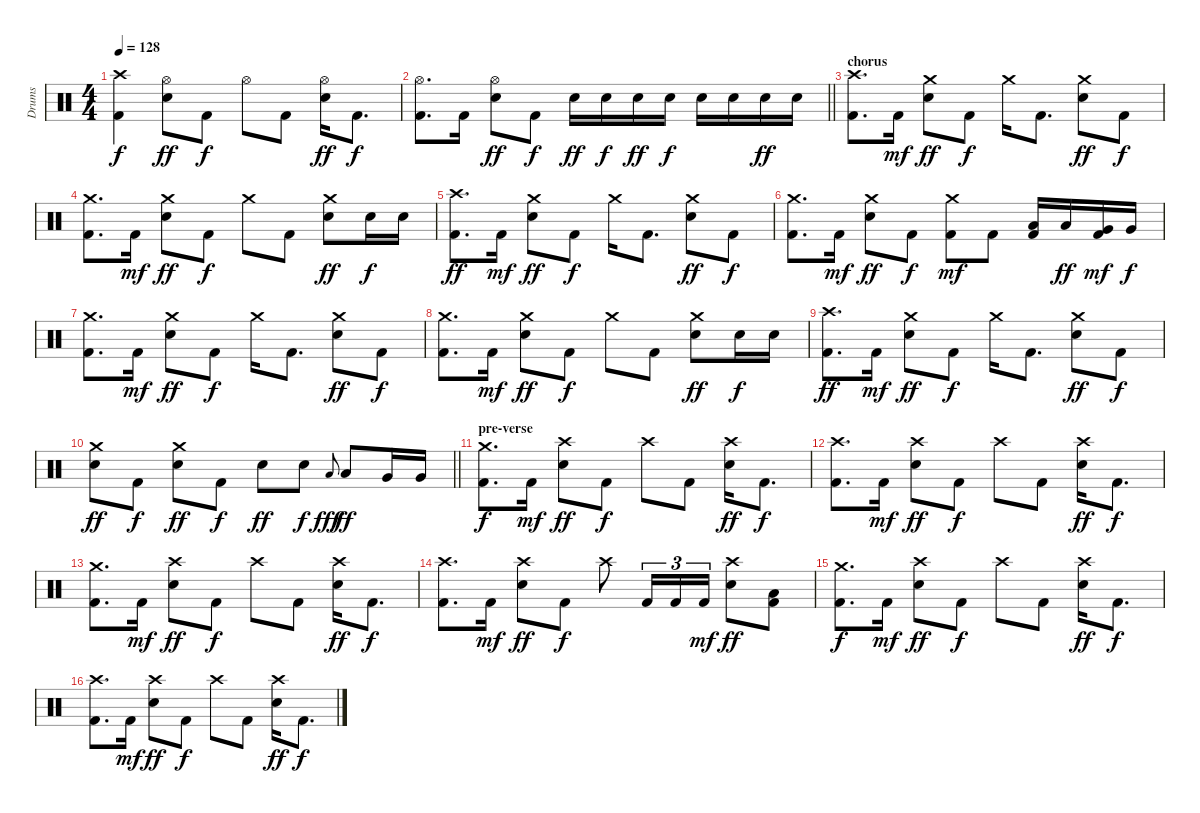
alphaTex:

\track ("Drums" "Drums") {instrument percussion}
\staff {score}
\articulation defaults
\ts (4 4)
\tempo 128
\clef neutral
\ks c
("Crash high (hit)" "Kick (hit) 2").4{dy f} ("Hi-Hat (open)" "Electric Snare (hit)").8{dy ff} "Kick (hit) 2".8{dy f} "Hi-Hat (open)".8 "Kick (hit) 2".8 ("Hi-Hat (open)" "Electric Snare (hit)").16{dy ff} "Kick (hit) 2".8{d dy f} |
\barLineRight lightlight
("Hi-Hat (open)" "Kick (hit) 2").8{d} "Kick (hit) 2".16 ("Hi-Hat (open)" "Electric Snare (hit)").8{dy ff} "Kick (hit) 2".8{dy f} "Electric Snare (hit)".16{dy ff} "Electric Snare (hit)".16{dy f} "Electric Snare (hit)".16{dy ff} "Electric Snare (hit)".16{dy f} "Electric Snare (hit)".16 "Electric Snare (hit)".16 "Electric Snare (hit)".16{dy ff} "Electric Snare (hit)".16 |
\section ("" "chorus")
("Crash high (hit)" "Kick (hit) 2").8{d} "Kick (hit) 2".16{dy mf} ("Crash medium (hit)" "Electric Snare (hit)").8{dy ff} "Kick (hit) 2".8{dy f} "Crash medium (hit)".16 "Kick (hit) 2".8{d} ("Crash medium (hit)" "Electric Snare (hit)").8{dy ff} "Kick (hit) 2".8{dy f} |
("Crash medium (hit)" "Kick (hit) 2").8{d} "Kick (hit) 2".16{dy mf} ("Crash medium (hit)" "Electric Snare (hit)").8{dy ff} "Kick (hit) 2".8{dy f} "Crash medium (hit)".8 "Kick (hit) 2".8 ("Crash medium (hit)" "Electric Snare (hit)").8{dy ff} "Electric Snare (hit)".16{dy f} "Electric Snare (hit)".16 |
("Crash high (hit)" "Kick (hit) 2").8{d dy ff} "Kick (hit) 2".16{dy mf} ("Crash medium (hit)" "Electric Snare (hit)").8{dy ff} "Kick (hit) 2".8{dy f} "Crash medium (hit)".16 "Kick (hit) 2".8{d} ("Crash medium (hit)" "Electric Snare (hit)").8{dy ff} "Kick (hit) 2".8{dy f} |
("Crash medium (hit)" "Kick (hit) 2").8{d} "Kick (hit) 2".16{dy mf} ("Crash medium (hit)" "Electric Snare (hit)").8{dy ff} "Kick (hit) 2".8{dy f} ("Crash medium (hit)" "Kick (hit) 2").8{dy mf} "Kick (hit) 2".8 ("Low Tom (hit)" "Kick (hit) 2").16 "Low Tom (hit)".16{dy ff} ("Very Low Tom (hit)" "Kick (hit) 2").16{dy mf} "Very Low Tom (hit)".16{dy f} |
("Crash medium (hit)" "Kick (hit) 2").8{d} "Kick (hit) 2".16{dy mf} ("Crash medium (hit)" "Electric Snare (hit)").8{dy ff} "Kick (hit) 2".8{dy f} "Crash medium (hit)".16 "Kick (hit) 2".8{d} ("Crash medium (hit)" "Electric Snare (hit)").8{dy ff} "Kick (hit) 2".8{dy f} |
("Crash medium (hit)" "Kick (hit) 2").8{d} "Kick (hit) 2".16{dy mf} ("Crash medium (hit)" "Electric Snare (hit)").8{dy ff} "Kick (hit) 2".8{dy f} "Crash medium (hit)".8 "Kick (hit) 2".8 ("Crash medium (hit)" "Electric Snare (hit)").8{dy ff} "Electric Snare (hit)".16{dy f} "Electric Snare (hit)".16 |
("Crash high (hit)" "Kick (hit) 2").8{d dy ff} "Kick (hit) 2".16{dy mf} ("Crash medium (hit)" "Electric Snare (hit)").8{dy ff} "Kick (hit) 2".8{dy f} "Crash medium (hit)".16 "Kick (hit) 2".8{d} ("Crash medium (hit)" "Electric Snare (hit)").8{dy ff} "Kick (hit) 2".8{dy f} |
\barLineRight lightlight
("Crash medium (hit)" "Electric Snare (hit)").8{dy ff} "Kick (hit) 2".8{dy f} ("Crash medium (hit)" "Electric Snare (hit)").8{dy ff} "Kick (hit) 2".8{dy f} "Electric Snare (hit)".8{dy ff} "Electric Snare (hit)".8{dy f} "Low Tom (hit)".8{gr onbeat dy fff} "Low Tom (hit)".8{dy ff} "Very Low Tom (hit)".16 "Very Low Tom (hit)".16 |
\section ("" "pre-verse")
("Crash medium (hit)" "Kick (hit) 2").8{d dy f} "Kick (hit) 2".16{dy mf} ("Crash high (hit)" "Electric Snare (hit)").8{dy ff} "Kick (hit) 2".8{dy f} "Crash high (hit)".8 "Kick (hit) 2".8 ("Crash high (hit)" "Electric Snare (hit)").16{dy ff} "Kick (hit) 2".8{d dy f} |
("Crash high (hit)" "Kick (hit) 2").8{d} "Kick (hit) 2".16{dy mf} ("Crash high (hit)" "Electric Snare (hit)").8{dy ff} "Kick (hit) 2".8{dy f} "Crash high (hit)".8 "Kick (hit) 2".8 ("Crash high (hit)" "Electric Snare (hit)").16{dy ff} "Kick (hit) 2".8{d dy f} |
("Crash medium (hit)" "Kick (hit) 2").8{d} "Kick (hit) 2".16{dy mf} ("Crash high (hit)" "Electric Snare (hit)").8{dy ff} "Kick (hit) 2".8{dy f} "Crash high (hit)".8 "Kick (hit) 2".8 ("Crash high (hit)" "Electric Snare (hit)").16{dy ff} "Kick (hit) 2".8{d dy f} |
("Crash high (hit)" "Kick (hit) 2").8{d} "Kick (hit) 2".16{dy mf} ("Crash high (hit)" "Electric Snare (hit)").8{dy ff} "Kick (hit) 2".8{dy f} "Crash high (hit)".8 "Kick (hit) 2".16{tu (3 2)} "Kick (hit) 2".16{tu (3 2)} "Kick (hit) 2".16{tu (3 2) dy mf} ("Crash high (hit)" "Electric Snare (hit)").8{dy ff} ("Low Tom (hit)" "Kick (hit) 2").8 |
("Crash medium (hit)" "Kick (hit) 2").8{d dy f} "Kick (hit) 2".16{dy mf} ("Crash high (hit)" "Electric Snare (hit)").8{dy ff} "Kick (hit) 2".8{dy f} "Crash high (hit)".8 "Kick (hit) 2".8 ("Crash high (hit)" "Electric Snare (hit)").16{dy ff} "Kick (hit) 2".8{d dy f} |
("Crash high (hit)" "Kick (hit) 2").8{d} "Kick (hit) 2".16{dy mf} ("Crash high (hit)" "Electric Snare (hit)").8{dy ff} "Kick (hit) 2".8{dy f} "Crash high (hit)".8 "Kick (hit) 2".8 ("Crash high (hit)" "Electric Snare (hit)").16{dy ff} "Kick (hit) 2".8{d dy f}
